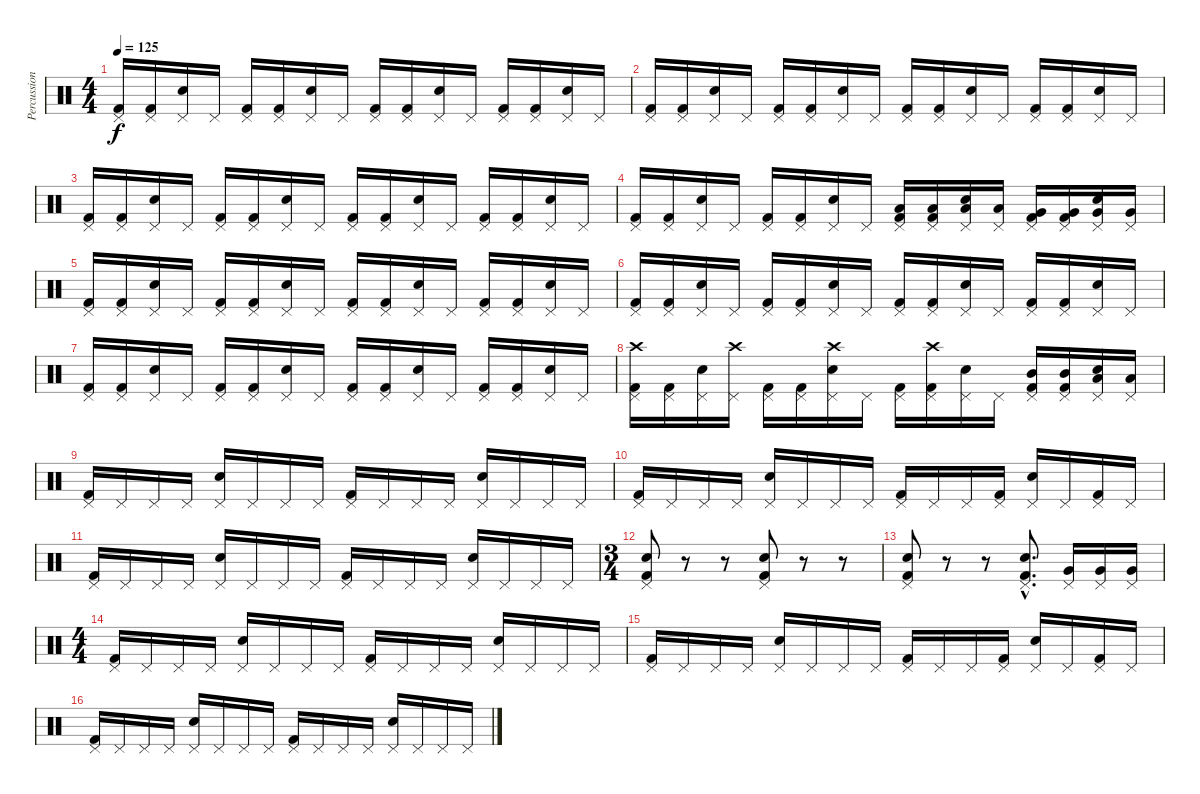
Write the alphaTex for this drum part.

\track ("Percussion" "Percussion") {instrument percussion}
\staff {score}
\articulation defaults
\ts (4 4)
\tempo 125
\clef neutral
\ks c
("Kick (hit) 2" "Pedal Hi-Hat (hit)").16{dy f} ("Kick (hit) 2" "Pedal Hi-Hat (hit)").16 ("Pedal Hi-Hat (hit)" "Snare (hit) 2").16 "Pedal Hi-Hat (hit)".16 ("Kick (hit) 2" "Pedal Hi-Hat (hit)").16 ("Kick (hit) 2" "Pedal Hi-Hat (hit)").16 ("Pedal Hi-Hat (hit)" "Snare (hit) 2").16 "Pedal Hi-Hat (hit)".16 ("Kick (hit) 2" "Pedal Hi-Hat (hit)").16 ("Kick (hit) 2" "Pedal Hi-Hat (hit)").16 ("Pedal Hi-Hat (hit)" "Snare (hit) 2").16 "Pedal Hi-Hat (hit)".16 ("Kick (hit) 2" "Pedal Hi-Hat (hit)").16 ("Kick (hit) 2" "Pedal Hi-Hat (hit)").16 ("Pedal Hi-Hat (hit)" "Snare (hit) 2").16 "Pedal Hi-Hat (hit)".16 |
("Kick (hit) 2" "Pedal Hi-Hat (hit)").16 ("Kick (hit) 2" "Pedal Hi-Hat (hit)").16 ("Pedal Hi-Hat (hit)" "Snare (hit) 2").16 "Pedal Hi-Hat (hit)".16 ("Kick (hit) 2" "Pedal Hi-Hat (hit)").16 ("Kick (hit) 2" "Pedal Hi-Hat (hit)").16 ("Pedal Hi-Hat (hit)" "Snare (hit) 2").16 "Pedal Hi-Hat (hit)".16 ("Kick (hit) 2" "Pedal Hi-Hat (hit)").16 ("Kick (hit) 2" "Pedal Hi-Hat (hit)").16 ("Pedal Hi-Hat (hit)" "Snare (hit) 2").16 "Pedal Hi-Hat (hit)".16 ("Kick (hit) 2" "Pedal Hi-Hat (hit)").16 ("Kick (hit) 2" "Pedal Hi-Hat (hit)").16 ("Pedal Hi-Hat (hit)" "Snare (hit) 2").16 "Pedal Hi-Hat (hit)".16 |
("Kick (hit) 2" "Pedal Hi-Hat (hit)").16 ("Kick (hit) 2" "Pedal Hi-Hat (hit)").16 ("Pedal Hi-Hat (hit)" "Snare (hit) 2").16 "Pedal Hi-Hat (hit)".16 ("Kick (hit) 2" "Pedal Hi-Hat (hit)").16 ("Kick (hit) 2" "Pedal Hi-Hat (hit)").16 ("Pedal Hi-Hat (hit)" "Snare (hit) 2").16 "Pedal Hi-Hat (hit)".16 ("Kick (hit) 2" "Pedal Hi-Hat (hit)").16 ("Kick (hit) 2" "Pedal Hi-Hat (hit)").16 ("Pedal Hi-Hat (hit)" "Snare (hit) 2").16 "Pedal Hi-Hat (hit)".16 ("Kick (hit) 2" "Pedal Hi-Hat (hit)").16 ("Kick (hit) 2" "Pedal Hi-Hat (hit)").16 ("Pedal Hi-Hat (hit)" "Snare (hit) 2").16 "Pedal Hi-Hat (hit)".16 |
("Kick (hit) 2" "Pedal Hi-Hat (hit)").16 ("Kick (hit) 2" "Pedal Hi-Hat (hit)").16 ("Pedal Hi-Hat (hit)" "Snare (hit) 2").16 "Pedal Hi-Hat (hit)".16 ("Kick (hit) 2" "Pedal Hi-Hat (hit)").16 ("Kick (hit) 2" "Pedal Hi-Hat (hit)").16 ("Pedal Hi-Hat (hit)" "Snare (hit) 2").16 "Pedal Hi-Hat (hit)".16 ("Kick (hit) 2" "Pedal Hi-Hat (hit)" "Low Tom (hit)").16 ("Kick (hit) 2" "Pedal Hi-Hat (hit)" "Low Tom (hit)").16 ("Pedal Hi-Hat (hit)" "Snare (hit) 2" "Low Tom (hit)").16 ("Pedal Hi-Hat (hit)" "Low Tom (hit)").16 ("Kick (hit) 2" "Pedal Hi-Hat (hit)" "Very Low Tom (hit)").16 ("Kick (hit) 2" "Pedal Hi-Hat (hit)" "Very Low Tom (hit)").16 ("Pedal Hi-Hat (hit)" "Snare (hit) 2" "Very Low Tom (hit)").16 ("Pedal Hi-Hat (hit)" "Very Low Tom (hit)").16 |
("Kick (hit) 2" "Pedal Hi-Hat (hit)").16 ("Kick (hit) 2" "Pedal Hi-Hat (hit)").16 ("Pedal Hi-Hat (hit)" "Snare (hit) 2").16 "Pedal Hi-Hat (hit)".16 ("Kick (hit) 2" "Pedal Hi-Hat (hit)").16 ("Kick (hit) 2" "Pedal Hi-Hat (hit)").16 ("Pedal Hi-Hat (hit)" "Snare (hit) 2").16 "Pedal Hi-Hat (hit)".16 ("Kick (hit) 2" "Pedal Hi-Hat (hit)").16 ("Kick (hit) 2" "Pedal Hi-Hat (hit)").16 ("Pedal Hi-Hat (hit)" "Snare (hit) 2").16 "Pedal Hi-Hat (hit)".16 ("Kick (hit) 2" "Pedal Hi-Hat (hit)").16 ("Kick (hit) 2" "Pedal Hi-Hat (hit)").16 ("Pedal Hi-Hat (hit)" "Snare (hit) 2").16 "Pedal Hi-Hat (hit)".16 |
("Kick (hit) 2" "Pedal Hi-Hat (hit)").16 ("Kick (hit) 2" "Pedal Hi-Hat (hit)").16 ("Pedal Hi-Hat (hit)" "Snare (hit) 2").16 "Pedal Hi-Hat (hit)".16 ("Kick (hit) 2" "Pedal Hi-Hat (hit)").16 ("Kick (hit) 2" "Pedal Hi-Hat (hit)").16 ("Pedal Hi-Hat (hit)" "Snare (hit) 2").16 "Pedal Hi-Hat (hit)".16 ("Kick (hit) 2" "Pedal Hi-Hat (hit)").16 ("Kick (hit) 2" "Pedal Hi-Hat (hit)").16 ("Pedal Hi-Hat (hit)" "Snare (hit) 2").16 "Pedal Hi-Hat (hit)".16 ("Kick (hit) 2" "Pedal Hi-Hat (hit)").16 ("Kick (hit) 2" "Pedal Hi-Hat (hit)").16 ("Pedal Hi-Hat (hit)" "Snare (hit) 2").16 "Pedal Hi-Hat (hit)".16 |
("Kick (hit) 2" "Pedal Hi-Hat (hit)").16 ("Kick (hit) 2" "Pedal Hi-Hat (hit)").16 ("Pedal Hi-Hat (hit)" "Snare (hit) 2").16 "Pedal Hi-Hat (hit)".16 ("Kick (hit) 2" "Pedal Hi-Hat (hit)").16 ("Kick (hit) 2" "Pedal Hi-Hat (hit)").16 ("Pedal Hi-Hat (hit)" "Snare (hit) 2").16 "Pedal Hi-Hat (hit)".16 ("Kick (hit) 2" "Pedal Hi-Hat (hit)").16 ("Kick (hit) 2" "Pedal Hi-Hat (hit)").16 ("Pedal Hi-Hat (hit)" "Snare (hit) 2").16 "Pedal Hi-Hat (hit)".16 ("Kick (hit) 2" "Pedal Hi-Hat (hit)").16 ("Kick (hit) 2" "Pedal Hi-Hat (hit)").16 ("Pedal Hi-Hat (hit)" "Snare (hit) 2").16 "Pedal Hi-Hat (hit)".16 |
("Kick (hit) 2" "Pedal Hi-Hat (hit)" "Crash high (hit)").16 ("Kick (hit) 2" "Pedal Hi-Hat (hit)").16 ("Pedal Hi-Hat (hit)" "Snare (hit) 2").16 ("Pedal Hi-Hat (hit)" "Crash high (hit)").16 ("Kick (hit) 2" "Pedal Hi-Hat (hit)").16 ("Kick (hit) 2" "Pedal Hi-Hat (hit)").16 ("Pedal Hi-Hat (hit)" "Snare (hit) 2" "Crash high (hit)").16 "Pedal Hi-Hat (hit)".16 ("Kick (hit) 2" "Pedal Hi-Hat (hit)").16 ("Kick (hit) 2" "Pedal Hi-Hat (hit)" "Crash high (hit)").16 ("Pedal Hi-Hat (hit)" "Snare (hit) 2").16 "Pedal Hi-Hat (hit)".16 ("Kick (hit) 2" "Pedal Hi-Hat (hit)" "Mid Tom (hit)").16 ("Kick (hit) 2" "Pedal Hi-Hat (hit)" "Mid Tom (hit)").16 ("Pedal Hi-Hat (hit)" "Snare (hit) 2" "Low Tom (hit)").16 ("Pedal Hi-Hat (hit)" "Low Tom (hit)").16 |
("Kick (hit) 2" "Pedal Hi-Hat (hit)").16 "Pedal Hi-Hat (hit)".16 "Pedal Hi-Hat (hit)".16 "Pedal Hi-Hat (hit)".16 ("Pedal Hi-Hat (hit)" "Snare (hit) 2").16 "Pedal Hi-Hat (hit)".16 "Pedal Hi-Hat (hit)".16 "Pedal Hi-Hat (hit)".16 ("Kick (hit) 2" "Pedal Hi-Hat (hit)").16 "Pedal Hi-Hat (hit)".16 "Pedal Hi-Hat (hit)".16 "Pedal Hi-Hat (hit)".16 ("Pedal Hi-Hat (hit)" "Snare (hit) 2").16 "Pedal Hi-Hat (hit)".16 "Pedal Hi-Hat (hit)".16 "Pedal Hi-Hat (hit)".16 |
("Kick (hit) 2" "Pedal Hi-Hat (hit)").16 "Pedal Hi-Hat (hit)".16 "Pedal Hi-Hat (hit)".16 "Pedal Hi-Hat (hit)".16 ("Pedal Hi-Hat (hit)" "Snare (hit) 2").16 "Pedal Hi-Hat (hit)".16 "Pedal Hi-Hat (hit)".16 "Pedal Hi-Hat (hit)".16 ("Kick (hit) 2" "Pedal Hi-Hat (hit)").16 "Pedal Hi-Hat (hit)".16 "Pedal Hi-Hat (hit)".16 ("Kick (hit) 2" "Pedal Hi-Hat (hit)").16 ("Pedal Hi-Hat (hit)" "Snare (hit) 2").16 "Pedal Hi-Hat (hit)".16 ("Kick (hit) 2" "Pedal Hi-Hat (hit)").16 "Pedal Hi-Hat (hit)".16 |
("Kick (hit) 2" "Pedal Hi-Hat (hit)").16 "Pedal Hi-Hat (hit)".16 "Pedal Hi-Hat (hit)".16 "Pedal Hi-Hat (hit)".16 ("Pedal Hi-Hat (hit)" "Snare (hit) 2").16 "Pedal Hi-Hat (hit)".16 "Pedal Hi-Hat (hit)".16 "Pedal Hi-Hat (hit)".16 ("Kick (hit) 2" "Pedal Hi-Hat (hit)").16 "Pedal Hi-Hat (hit)".16 "Pedal Hi-Hat (hit)".16 "Pedal Hi-Hat (hit)".16 ("Pedal Hi-Hat (hit)" "Snare (hit) 2").16 "Pedal Hi-Hat (hit)".16 "Pedal Hi-Hat (hit)".16 "Pedal Hi-Hat (hit)".16 |
\ts (3 4)
("Kick (hit) 2" "Pedal Hi-Hat (hit)" "Snare (hit) 2").8 r.8 r.8 ("Kick (hit) 2" "Pedal Hi-Hat (hit)" "Snare (hit) 2").8 r.8 r.8 |
("Kick (hit) 2" "Pedal Hi-Hat (hit)" "Snare (hit) 2").8 r.8 r.8 ("Kick (hit) 2"{hac} "Pedal Hi-Hat (hit)"{hac} "Snare (hit) 2"{hac}).8{d} ("Pedal Hi-Hat (hit)" "Very Low Tom (hit)").16 ("Pedal Hi-Hat (hit)" "Very Low Tom (hit)").16 ("Pedal Hi-Hat (hit)" "Very Low Tom (hit)").16 |
\ts (4 4)
("Kick (hit) 2" "Pedal Hi-Hat (hit)").16 "Pedal Hi-Hat (hit)".16 "Pedal Hi-Hat (hit)".16 "Pedal Hi-Hat (hit)".16 ("Pedal Hi-Hat (hit)" "Snare (hit) 2").16 "Pedal Hi-Hat (hit)".16 "Pedal Hi-Hat (hit)".16 "Pedal Hi-Hat (hit)".16 ("Kick (hit) 2" "Pedal Hi-Hat (hit)").16 "Pedal Hi-Hat (hit)".16 "Pedal Hi-Hat (hit)".16 "Pedal Hi-Hat (hit)".16 ("Pedal Hi-Hat (hit)" "Snare (hit) 2").16 "Pedal Hi-Hat (hit)".16 "Pedal Hi-Hat (hit)".16 "Pedal Hi-Hat (hit)".16 |
("Kick (hit) 2" "Pedal Hi-Hat (hit)").16 "Pedal Hi-Hat (hit)".16 "Pedal Hi-Hat (hit)".16 "Pedal Hi-Hat (hit)".16 ("Pedal Hi-Hat (hit)" "Snare (hit) 2").16 "Pedal Hi-Hat (hit)".16 "Pedal Hi-Hat (hit)".16 "Pedal Hi-Hat (hit)".16 ("Kick (hit) 2" "Pedal Hi-Hat (hit)").16 "Pedal Hi-Hat (hit)".16 "Pedal Hi-Hat (hit)".16 ("Kick (hit) 2" "Pedal Hi-Hat (hit)").16 ("Pedal Hi-Hat (hit)" "Snare (hit) 2").16 "Pedal Hi-Hat (hit)".16 ("Kick (hit) 2" "Pedal Hi-Hat (hit)").16 "Pedal Hi-Hat (hit)".16 |
("Kick (hit) 2" "Pedal Hi-Hat (hit)").16 "Pedal Hi-Hat (hit)".16 "Pedal Hi-Hat (hit)".16 "Pedal Hi-Hat (hit)".16 ("Pedal Hi-Hat (hit)" "Snare (hit) 2").16 "Pedal Hi-Hat (hit)".16 "Pedal Hi-Hat (hit)".16 "Pedal Hi-Hat (hit)".16 ("Kick (hit) 2" "Pedal Hi-Hat (hit)").16 "Pedal Hi-Hat (hit)".16 "Pedal Hi-Hat (hit)".16 "Pedal Hi-Hat (hit)".16 ("Pedal Hi-Hat (hit)" "Snare (hit) 2").16 "Pedal Hi-Hat (hit)".16 "Pedal Hi-Hat (hit)".16 "Pedal Hi-Hat (hit)".16
